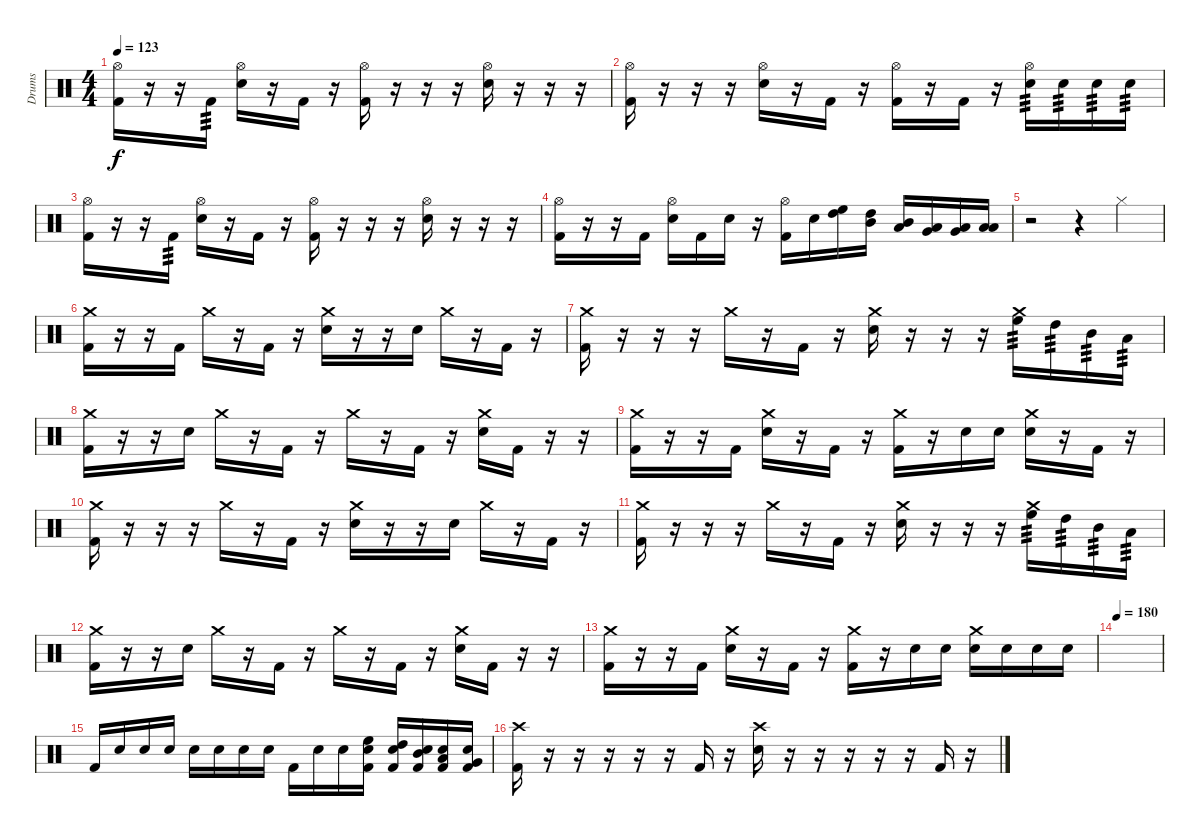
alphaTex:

\track ("Drums" "Drums") {instrument percussion}
\staff {score}
\articulation defaults
\ts (4 4)
\tempo 123
\clef neutral
\ks c
("Hi-Hat (open)" "Kick (hit) 2").16{dy f} r.16 r.16 "Kick (hit) 2".16{tp 3} ("Hi-Hat (open)" "Electric Snare (hit)").16 r.16 "Kick (hit) 2".16 r.16 ("Hi-Hat (open)" "Kick (hit) 2").16 r.16 r.16 r.16 ("Hi-Hat (open)" "Electric Snare (hit)").16 r.16 r.16 r.16 |
("Hi-Hat (open)" "Kick (hit) 2").16 r.16 r.16 r.16 ("Hi-Hat (open)" "Electric Snare (hit)").16 r.16 "Kick (hit) 2".16 r.16 ("Hi-Hat (open)" "Kick (hit) 2").16 r.16 "Kick (hit) 2".16 r.16 ("Hi-Hat (open)" "Electric Snare (hit)").16{tp 3} "Electric Snare (hit)".16{tp 3} "Electric Snare (hit)".16{tp 3} "Electric Snare (hit)".16{tp 3} |
("Hi-Hat (open)" "Kick (hit) 2").16 r.16 r.16 "Kick (hit) 2".16{tp 3} ("Hi-Hat (open)" "Electric Snare (hit)").16 r.16 "Kick (hit) 2".16 r.16 ("Hi-Hat (open)" "Kick (hit) 2").16 r.16 r.16 r.16 ("Hi-Hat (open)" "Electric Snare (hit)").16 r.16 r.16 r.16 |
("Hi-Hat (open)" "Kick (hit) 2").16 r.16 r.16 "Kick (hit) 2".16 ("Hi-Hat (open)" "Electric Snare (hit)").16 "Kick (hit) 2".16 "Electric Snare (hit)".16 r.16 ("Hi-Hat (open)" "Kick (hit) 2").16 "Electric Snare (hit)".16 ("High Floor Tom (hit)" "High Tom (hit)").16 ("High Tom (hit)" "Mid Tom (hit)").16 ("Mid Tom (hit)" "Low Tom (hit)").16 ("Low Tom (hit)" "Very Low Tom (hit)").16 ("Very Low Tom (hit)" "Low Floor Tom (hit)").16 ("Low Floor Tom (hit)" "Low Tom (hit)").16 |
r.2 r.4 "Hi-Hat (closed)".4 |
("Crash medium (hit)" "Kick (hit) 2").16 r.16 r.16 "Kick (hit) 2".16 "Crash medium (hit)".16 r.16 "Kick (hit) 2".16 r.16 ("Crash medium (hit)" "Electric Snare (hit)").16 r.16 r.16 "Electric Snare (hit)".16 "Crash medium (hit)".16 r.16 "Kick (hit) 2".16 r.16 |
("Crash medium (hit)" "Kick (hit) 2").16 r.16 r.16 r.16 "Crash medium (hit)".16 r.16 "Kick (hit) 2".16 r.16 ("Crash medium (hit)" "Electric Snare (hit)").16 r.16 r.16 r.16 ("Crash medium (hit)" "High Floor Tom (hit)").16{tp 3} "High Tom (hit)".16{tp 3} "Mid Tom (hit)".16{tp 3} "Low Tom (hit)".16{tp 3} |
("Crash medium (hit)" "Kick (hit) 2").16 r.16 r.16 "Electric Snare (hit)".16 "Crash medium (hit)".16 r.16 "Kick (hit) 2".16 r.16 "Crash medium (hit)".16 r.16 "Kick (hit) 2".16 r.16 ("Crash medium (hit)" "Electric Snare (hit)").16 "Kick (hit) 2".16 r.16 r.16 |
("Crash medium (hit)" "Kick (hit) 2").16 r.16 r.16 "Kick (hit) 2".16 ("Crash medium (hit)" "Electric Snare (hit)").16 r.16 "Kick (hit) 2".16 r.16 ("Crash medium (hit)" "Kick (hit) 2").16 r.16 "Electric Snare (hit)".16 "Electric Snare (hit)".16 ("Crash medium (hit)" "Electric Snare (hit)").16 r.16 "Kick (hit) 2".16 r.16 |
("Crash medium (hit)" "Kick (hit) 2").16 r.16 r.16 r.16 "Crash medium (hit)".16 r.16 "Kick (hit) 2".16 r.16 ("Crash medium (hit)" "Electric Snare (hit)").16 r.16 r.16 "Electric Snare (hit)".16 "Crash medium (hit)".16 r.16 "Kick (hit) 2".16 r.16 |
("Crash medium (hit)" "Kick (hit) 2").16 r.16 r.16 r.16 "Crash medium (hit)".16 r.16 "Kick (hit) 2".16 r.16 ("Crash medium (hit)" "Electric Snare (hit)").16 r.16 r.16 r.16 ("Crash medium (hit)" "High Floor Tom (hit)").16{tp 3} "High Tom (hit)".16{tp 3} "Mid Tom (hit)".16{tp 3} "Low Tom (hit)".16{tp 3} |
("Crash medium (hit)" "Kick (hit) 2").16 r.16 r.16 "Electric Snare (hit)".16 "Crash medium (hit)".16 r.16 "Kick (hit) 2".16 r.16 "Crash medium (hit)".16 r.16 "Kick (hit) 2".16 r.16 ("Crash medium (hit)" "Electric Snare (hit)").16 "Kick (hit) 2".16 r.16 r.16 |
("Crash medium (hit)" "Kick (hit) 2").16 r.16 r.16 "Kick (hit) 2".16 ("Crash medium (hit)" "Electric Snare (hit)").16 r.16 "Kick (hit) 2".16 r.16 ("Crash medium (hit)" "Kick (hit) 2").16 r.16 "Electric Snare (hit)".16 "Electric Snare (hit)".16 ("Crash medium (hit)" "Electric Snare (hit)").16 "Electric Snare (hit)".16 "Electric Snare (hit)".16 "Electric Snare (hit)".16 |
\tempo 180
|
"Kick (hit) 2".16 "Snare (hit) 2".16 "Snare (hit) 2".16 "Snare (hit) 2".16 "Snare (hit) 2".16 "Snare (hit) 2".16 "Snare (hit) 2".16 "Snare (hit) 2".16 "Kick (hit) 2".16 "Snare (hit) 2".16 "Snare (hit) 2".16 ("High Floor Tom (hit)" "Electric Snare (hit)" "Kick (hit) 2").16 ("High Tom (hit)" "Electric Snare (hit)" "Kick (hit) 2").16 ("Mid Tom (hit)" "Electric Snare (hit)" "Kick (hit) 2").16 ("Low Tom (hit)" "Electric Snare (hit)" "Kick (hit) 2").16 ("Very Low Tom (hit)" "Electric Snare (hit)" "Kick (hit) 2").16 |
("Crash high (hit)" "Kick (hit) 2").16 r.16 r.16 r.16 r.16 r.16 "Kick (hit) 2".16 r.16 ("Crash high (hit)" "Electric Snare (hit)").16 r.16 r.16 r.16 r.16 r.16 "Kick (hit) 2".16 r.16
